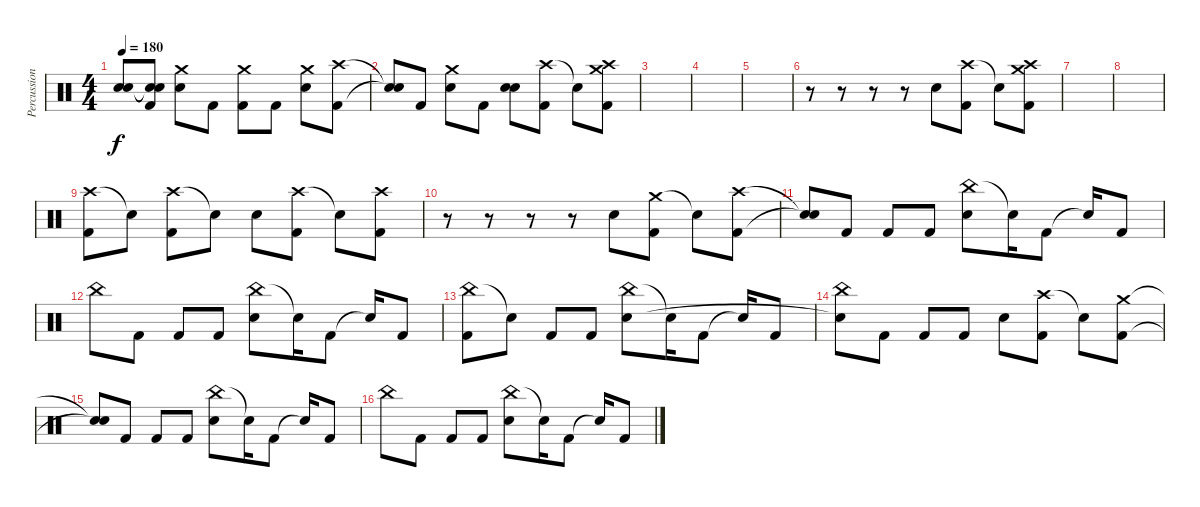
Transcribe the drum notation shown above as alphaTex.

\track ("Percussion" "Percussion") {instrument percussion}
\staff {score}
\articulation defaults
\ts (4 4)
\tempo 180
\clef neutral
\ks c
("Snare (hit)"{t} "Snare (hit)"{t}).8{dy f} ("Snare (hit)"{t} "Snare (hit)"{t} "Kick (hit) 2").8 ("Crash medium (hit)" "Snare (hit) 2").8 "Kick (hit) 2".8 ("Crash medium (hit)" "Kick (hit) 2").8 "Kick (hit) 2".8 ("Crash medium (hit)" "Snare (hit) 2").8 ("Crash high (hit)" "Kick (hit) 2").8 |
("Snare (hit)"{t} "Snare (hit)"{t}).8 "Kick (hit) 2".8 ("Crash medium (hit)" "Snare (hit) 2").8 "Kick (hit) 2".8 ("Snare (hit) 2" "Snare (hit) 2").8 ("Crash high (hit)" "Kick (hit) 2").8 "Snare (hit)"{t}.8 ("Crash high (hit)" "Crash medium (hit)" "Kick (hit) 2").8 |
|
|
|
r.8 r.8 r.8 r.8 "Snare (hit) 2".8 ("Crash high (hit)" "Kick (hit) 2").8 "Snare (hit)"{t}.8 ("Crash high (hit)" "Crash medium (hit)" "Kick (hit) 2").8 |
|
|
("Crash high (hit)" "Kick (hit) 2").8 "Snare (hit)"{t}.8 ("Crash high (hit)" "Kick (hit) 2").8 "Snare (hit)"{t}.8 "Snare (hit) 2".8 ("Crash high (hit)" "Kick (hit) 2").8 "Snare (hit)"{t}.8 ("Crash high (hit)" "Kick (hit) 2").8 |
r.8 r.8 r.8 r.8 "Snare (hit) 2".8 ("Crash medium (hit)" "Kick (hit) 2").8 "Snare (hit)"{t}.8 ("Crash high (hit)" "Kick (hit) 2").8 |
("Snare (hit)"{t} "Snare (hit)"{t}).8 "Kick (hit) 2".8 "Kick (hit) 2".8 "Kick (hit) 2".8 ("China (hit)" "Snare (hit) 2").8 "Snare (hit)"{t}.16 "Kick (hit) 2".8 "Snare (hit)"{t}.16 "Kick (hit) 2".8 |
"China (hit)".8 "Kick (hit) 2".8 "Kick (hit) 2".8 "Kick (hit) 2".8 ("China (hit)" "Snare (hit) 2").8 "Snare (hit)"{t}.16 "Kick (hit) 2".8 "Snare (hit)"{t}.16 "Kick (hit) 2".8 |
("China (hit)" "Kick (hit) 2").8 "Snare (hit)"{t}.8 "Kick (hit) 2".8 "Kick (hit) 2".8 ("China (hit)" "Snare (hit) 2").8 "Snare (hit)"{t}.16 "Kick (hit) 2".8 "Snare (hit)"{t}.16 "Kick (hit) 2".8 |
("China (hit)" "Snare (hit)"{t}).8 "Kick (hit) 2".8 "Kick (hit) 2".8 "Kick (hit) 2".8 "Snare (hit) 2".8 ("Crash high (hit)" "Kick (hit) 2").8 "Snare (hit)"{t}.8 ("Crash medium (hit)" "Kick (hit) 2").8 |
("Snare (hit)"{t} "Snare (hit)"{t}).8 "Kick (hit) 2".8 "Kick (hit) 2".8 "Kick (hit) 2".8 ("China (hit)" "Snare (hit) 2").8 "Snare (hit)"{t}.16 "Kick (hit) 2".8 "Snare (hit)"{t}.16 "Kick (hit) 2".8 |
"China (hit)".8 "Kick (hit) 2".8 "Kick (hit) 2".8 "Kick (hit) 2".8 ("China (hit)" "Snare (hit) 2").8 "Snare (hit)"{t}.16 "Kick (hit) 2".8 "Snare (hit)"{t}.16 "Kick (hit) 2".8
